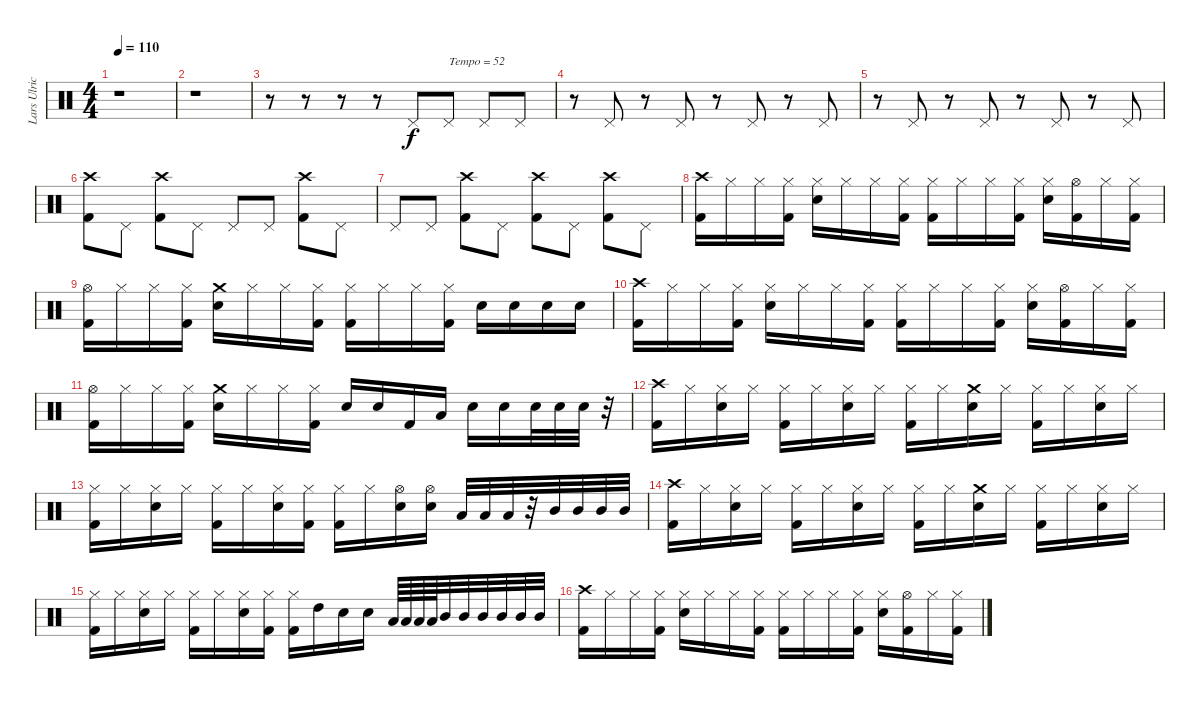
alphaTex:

\track ("Lars Ulrich" "Lars Ulric") {instrument percussion}
\staff {score}
\articulation defaults
\ts (4 4)
\tempo 110
\clef neutral
\ks c
r.1{dy f} |
r.1 |
r.8 r.8 r.8 r.8 "Pedal Hi-Hat (hit)".8 "Pedal Hi-Hat (hit)".8{txt "Tempo = 52"} "Pedal Hi-Hat (hit)".8 "Pedal Hi-Hat (hit)".8 |
r.8 "Pedal Hi-Hat (hit)".8 r.8 "Pedal Hi-Hat (hit)".8 r.8 "Pedal Hi-Hat (hit)".8 r.8 "Pedal Hi-Hat (hit)".8 |
r.8 "Pedal Hi-Hat (hit)".8 r.8 "Pedal Hi-Hat (hit)".8 r.8 "Pedal Hi-Hat (hit)".8 r.8 "Pedal Hi-Hat (hit)".8 |
("Crash high (hit)" "Kick (hit) 2").8 "Pedal Hi-Hat (hit)".8 ("Crash high (hit)" "Kick (hit) 2").8 "Pedal Hi-Hat (hit)".8 "Pedal Hi-Hat (hit)".8 "Pedal Hi-Hat (hit)".8 ("Crash high (hit)" "Kick (hit) 2").8 "Pedal Hi-Hat (hit)".8 |
"Pedal Hi-Hat (hit)".8 "Pedal Hi-Hat (hit)".8 ("Crash high (hit)" "Kick (hit) 2").8 "Pedal Hi-Hat (hit)".8 ("Crash high (hit)" "Kick (hit) 2").8 "Pedal Hi-Hat (hit)".8 ("Crash high (hit)" "Kick (hit) 2").8 "Pedal Hi-Hat (hit)".8 |
("Crash high (hit)" "Kick (hit) 2").16 "Hi-Hat (closed)".16 "Hi-Hat (closed)".16 ("Hi-Hat (closed)" "Kick (hit) 2").16 ("Hi-Hat (closed)" "Snare (hit) 2").16 "Hi-Hat (closed)".16 "Hi-Hat (closed)".16 ("Hi-Hat (closed)" "Kick (hit) 2").16 ("Hi-Hat (closed)" "Kick (hit) 2").16 "Hi-Hat (closed)".16 "Hi-Hat (closed)".16 ("Hi-Hat (closed)" "Kick (hit) 2").16 ("Hi-Hat (closed)" "Snare (hit) 2").16 ("Hi-Hat (open)" "Kick (hit) 2").16 "Hi-Hat (closed)".16 ("Hi-Hat (closed)" "Kick (hit) 2").16 |
("Hi-Hat (open)" "Kick (hit) 2").16 "Hi-Hat (closed)".16 "Hi-Hat (closed)".16 ("Hi-Hat (closed)" "Kick (hit) 2").16 ("Crash medium (hit)" "Snare (hit) 2").16 "Hi-Hat (closed)".16 "Hi-Hat (closed)".16 ("Hi-Hat (closed)" "Kick (hit) 2").16 ("Hi-Hat (closed)" "Kick (hit) 2").16 "Hi-Hat (closed)".16 "Hi-Hat (closed)".16 ("Hi-Hat (closed)" "Kick (hit) 2").16 "Snare (hit) 2".16 "Snare (hit) 2".16 "Snare (hit) 2".16 "Snare (hit) 2".16 |
("Crash high (hit)" "Kick (hit) 2").16 "Hi-Hat (closed)".16 "Hi-Hat (closed)".16 ("Hi-Hat (closed)" "Kick (hit) 2").16 ("Hi-Hat (closed)" "Snare (hit) 2").16 "Hi-Hat (closed)".16 "Hi-Hat (closed)".16 ("Hi-Hat (closed)" "Kick (hit) 2").16 ("Hi-Hat (closed)" "Kick (hit) 2").16 "Hi-Hat (closed)".16 "Hi-Hat (closed)".16 ("Hi-Hat (closed)" "Kick (hit) 2").16 ("Hi-Hat (closed)" "Snare (hit) 2").16 ("Hi-Hat (open)" "Kick (hit) 2").16 "Hi-Hat (closed)".16 ("Hi-Hat (closed)" "Kick (hit) 2").16 |
("Hi-Hat (open)" "Kick (hit) 2").16 "Hi-Hat (closed)".16 "Hi-Hat (closed)".16 ("Hi-Hat (closed)" "Kick (hit) 2").16 ("Crash medium (hit)" "Snare (hit) 2").16 "Hi-Hat (closed)".16 "Hi-Hat (closed)".16 ("Hi-Hat (closed)" "Kick (hit) 2").16 "Snare (hit) 2".16 "Snare (hit) 2".16 "Kick (hit) 2".16 "Low Tom (hit)".16 "Snare (hit) 2".16 "Snare (hit) 2".16 "Snare (hit) 2".32 "Snare (hit) 2".32 "Snare (hit) 2".32 r.32 |
("Crash high (hit)" "Kick (hit) 2").16 "Hi-Hat (closed)".16 ("Hi-Hat (closed)" "Snare (hit) 2").16 "Hi-Hat (closed)".16 ("Hi-Hat (closed)" "Kick (hit) 2").16 "Hi-Hat (closed)".16 ("Hi-Hat (closed)" "Snare (hit) 2").16 "Hi-Hat (closed)".16 ("Hi-Hat (closed)" "Kick (hit) 2").16 "Hi-Hat (closed)".16 ("Crash medium (hit)" "Snare (hit) 2").16 "Hi-Hat (closed)".16 ("Hi-Hat (closed)" "Kick (hit) 2").16 "Hi-Hat (closed)".16 ("Hi-Hat (closed)" "Snare (hit) 2").16 "Hi-Hat (closed)".16 |
("Hi-Hat (closed)" "Kick (hit) 2").16 "Hi-Hat (closed)".16 ("Hi-Hat (closed)" "Snare (hit) 2").16 "Hi-Hat (closed)".16 ("Hi-Hat (closed)" "Kick (hit) 2").16 "Hi-Hat (closed)".16 ("Hi-Hat (closed)" "Snare (hit) 2").16 ("Hi-Hat (closed)" "Kick (hit) 2").16 ("Hi-Hat (closed)" "Kick (hit) 2").16 "Hi-Hat (closed)".16 ("Hi-Hat (open)" "Snare (hit) 2").16 ("Hi-Hat (open)" "Snare (hit) 2").16 "Low Tom (hit)".32 "Low Tom (hit)".32 "Low Tom (hit)".32 r.32 "Mid Tom (hit)".32 "Mid Tom (hit)".32 "Mid Tom (hit)".32 "Mid Tom (hit)".32 |
("Crash high (hit)" "Kick (hit) 2").16 "Hi-Hat (closed)".16 ("Hi-Hat (closed)" "Snare (hit) 2").16 "Hi-Hat (closed)".16 ("Hi-Hat (closed)" "Kick (hit) 2").16 "Hi-Hat (closed)".16 ("Hi-Hat (closed)" "Snare (hit) 2").16 "Hi-Hat (closed)".16 ("Hi-Hat (closed)" "Kick (hit) 2").16 "Hi-Hat (closed)".16 ("Crash medium (hit)" "Snare (hit) 2").16 "Hi-Hat (closed)".16 ("Hi-Hat (closed)" "Kick (hit) 2").16 "Hi-Hat (closed)".16 ("Hi-Hat (closed)" "Snare (hit) 2").16 "Hi-Hat (closed)".16 |
("Hi-Hat (closed)" "Kick (hit) 2").16 "Hi-Hat (closed)".16 ("Hi-Hat (closed)" "Snare (hit) 2").16 "Hi-Hat (closed)".16 ("Hi-Hat (closed)" "Kick (hit) 2").16 "Hi-Hat (closed)".16 ("Hi-Hat (closed)" "Snare (hit) 2").16 ("Hi-Hat (closed)" "Kick (hit) 2").16 ("Hi-Hat (closed)" "Kick (hit) 2").16 "High Tom (hit)".16 "Snare (hit) 2".16 "Snare (hit) 2".16 "Low Tom (hit)".64 "Low Tom (hit)".64 "Low Tom (hit)".64 "Low Tom (hit)".64 "Mid Tom (hit)".32 "Mid Tom (hit)".32 "Mid Tom (hit)".32 "Mid Tom (hit)".32 "Mid Tom (hit)".32 "Mid Tom (hit)".32 |
("Crash high (hit)" "Kick (hit) 2").16 "Hi-Hat (closed)".16 "Hi-Hat (closed)".16 ("Hi-Hat (closed)" "Kick (hit) 2").16 ("Hi-Hat (closed)" "Snare (hit) 2").16 "Hi-Hat (closed)".16 "Hi-Hat (closed)".16 ("Hi-Hat (closed)" "Kick (hit) 2").16 ("Hi-Hat (closed)" "Kick (hit) 2").16 "Hi-Hat (closed)".16 "Hi-Hat (closed)".16 ("Hi-Hat (closed)" "Kick (hit) 2").16 ("Hi-Hat (closed)" "Snare (hit) 2").16 ("Hi-Hat (open)" "Kick (hit) 2").16 "Hi-Hat (closed)".16 ("Hi-Hat (closed)" "Kick (hit) 2").16
